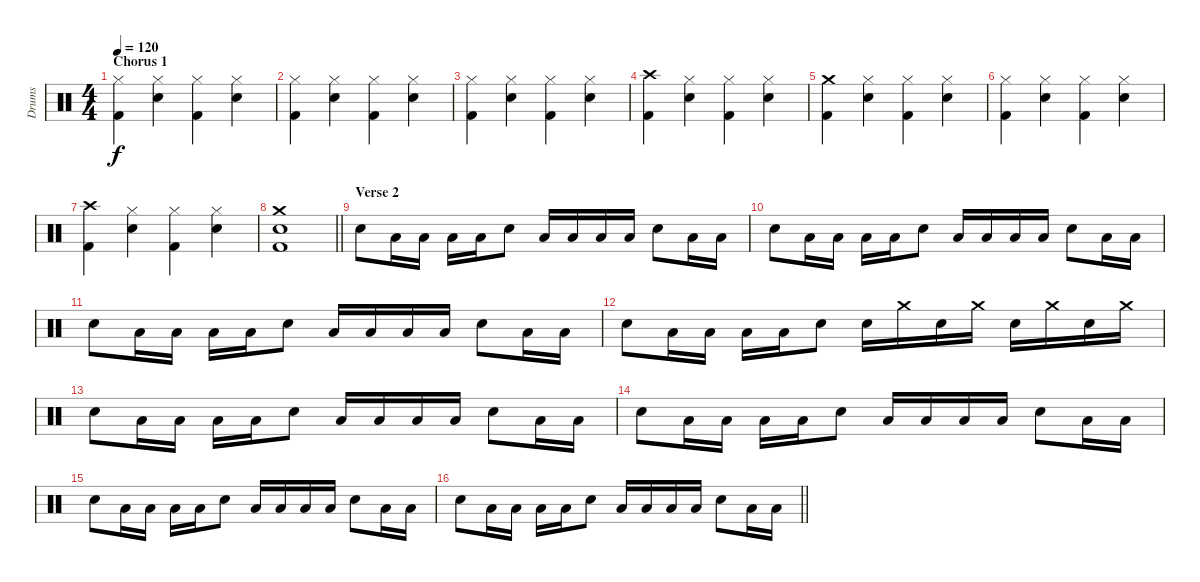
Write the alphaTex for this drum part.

\track ("Drums" "Drums") {instrument percussion}
\staff {score}
\articulation defaults
\ts (4 4)
\section ("" "Chorus 1")
\tempo 120
\clef neutral
\ks c
("Hi-Hat (closed)" "Kick (hit) 2").4{dy f} ("Hi-Hat (closed)" "Electric Snare (hit)").4 ("Hi-Hat (closed)" "Kick (hit) 2").4 ("Hi-Hat (closed)" "Electric Snare (hit)").4 |
("Hi-Hat (closed)" "Kick (hit) 2").4 ("Hi-Hat (closed)" "Electric Snare (hit)").4 ("Hi-Hat (closed)" "Kick (hit) 2").4 ("Hi-Hat (closed)" "Electric Snare (hit)").4 |
("Hi-Hat (closed)" "Kick (hit) 2").4 ("Hi-Hat (closed)" "Electric Snare (hit)").4 ("Hi-Hat (closed)" "Kick (hit) 2").4 ("Hi-Hat (closed)" "Electric Snare (hit)").4 |
("Crash high (hit)" "Kick (hit) 2").4 ("Hi-Hat (closed)" "Electric Snare (hit)").4 ("Hi-Hat (closed)" "Kick (hit) 2").4 ("Hi-Hat (closed)" "Electric Snare (hit)").4 |
("Crash medium (hit)" "Kick (hit) 2").4 ("Hi-Hat (closed)" "Electric Snare (hit)").4 ("Hi-Hat (closed)" "Kick (hit) 2").4 ("Hi-Hat (closed)" "Electric Snare (hit)").4 |
("Hi-Hat (closed)" "Kick (hit) 2").4 ("Hi-Hat (closed)" "Electric Snare (hit)").4 ("Hi-Hat (closed)" "Kick (hit) 2").4 ("Hi-Hat (closed)" "Electric Snare (hit)").4 |
("Crash high (hit)" "Kick (hit) 2").4 ("Hi-Hat (closed)" "Electric Snare (hit)").4 ("Hi-Hat (closed)" "Kick (hit) 2").4 ("Hi-Hat (closed)" "Electric Snare (hit)").4 |
\barLineRight lightlight
("Crash medium (hit)" "Electric Snare (hit)" "Kick (hit) 2").1 |
\section ("" "Verse 2")
"Electric Snare (hit)".8 "Low Tom (hit)".16 "Low Tom (hit)".16 "Low Tom (hit)".16 "Low Tom (hit)".16 "Electric Snare (hit)".8 "Low Tom (hit)".16 "Low Tom (hit)".16 "Low Tom (hit)".16 "Low Tom (hit)".16 "Electric Snare (hit)".8 "Low Tom (hit)".16 "Low Tom (hit)".16 |
"Electric Snare (hit)".8 "Low Tom (hit)".16 "Low Tom (hit)".16 "Low Tom (hit)".16 "Low Tom (hit)".16 "Electric Snare (hit)".8 "Low Tom (hit)".16 "Low Tom (hit)".16 "Low Tom (hit)".16 "Low Tom (hit)".16 "Electric Snare (hit)".8 "Low Tom (hit)".16 "Low Tom (hit)".16 |
"Electric Snare (hit)".8 "Low Tom (hit)".16 "Low Tom (hit)".16 "Low Tom (hit)".16 "Low Tom (hit)".16 "Electric Snare (hit)".8 "Low Tom (hit)".16 "Low Tom (hit)".16 "Low Tom (hit)".16 "Low Tom (hit)".16 "Electric Snare (hit)".8 "Low Tom (hit)".16 "Low Tom (hit)".16 |
"Electric Snare (hit)".8 "Low Tom (hit)".16 "Low Tom (hit)".16 "Low Tom (hit)".16 "Low Tom (hit)".16 "Electric Snare (hit)".8 "Electric Snare (hit)".16 "Crash medium (hit)".16 "Electric Snare (hit)".16 "Crash medium (hit)".16 "Electric Snare (hit)".16 "Crash medium (hit)".16 "Electric Snare (hit)".16 "Crash medium (hit)".16 |
"Electric Snare (hit)".8 "Low Tom (hit)".16 "Low Tom (hit)".16 "Low Tom (hit)".16 "Low Tom (hit)".16 "Electric Snare (hit)".8 "Low Tom (hit)".16 "Low Tom (hit)".16 "Low Tom (hit)".16 "Low Tom (hit)".16 "Electric Snare (hit)".8 "Low Tom (hit)".16 "Low Tom (hit)".16 |
"Electric Snare (hit)".8 "Low Tom (hit)".16 "Low Tom (hit)".16 "Low Tom (hit)".16 "Low Tom (hit)".16 "Electric Snare (hit)".8 "Low Tom (hit)".16 "Low Tom (hit)".16 "Low Tom (hit)".16 "Low Tom (hit)".16 "Electric Snare (hit)".8 "Low Tom (hit)".16 "Low Tom (hit)".16 |
"Electric Snare (hit)".8 "Low Tom (hit)".16 "Low Tom (hit)".16 "Low Tom (hit)".16 "Low Tom (hit)".16 "Electric Snare (hit)".8 "Low Tom (hit)".16 "Low Tom (hit)".16 "Low Tom (hit)".16 "Low Tom (hit)".16 "Electric Snare (hit)".8 "Low Tom (hit)".16 "Low Tom (hit)".16 |
\barLineRight lightlight "Electric Snare (hit)".8 "Low Tom (hit)".16 "Low Tom (hit)".16 "Low Tom (hit)".16 "Low Tom (hit)".16 "Electric Snare (hit)".8 "Low Tom (hit)".16 "Low Tom (hit)".16 "Low Tom (hit)".16 "Low Tom (hit)".16 "Electric Snare (hit)".8 "Low Tom (hit)".16 "Low Tom (hit)".16
